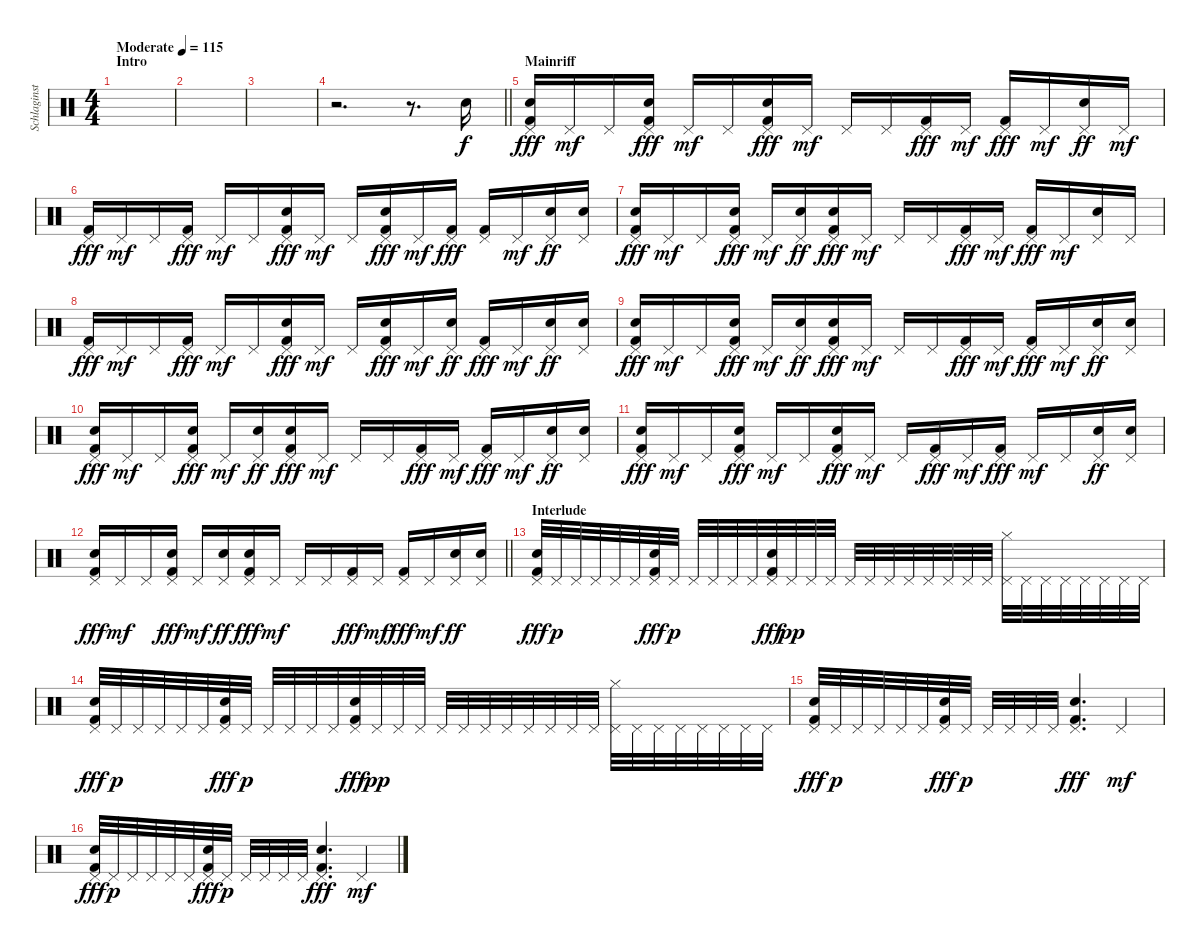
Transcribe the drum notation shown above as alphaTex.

\track ("Schlaginstrumente - Auswahl" "Schlaginst") {instrument percussion}
\staff {score}
\articulation defaults
\ts (4 4)
\section ("" "Intro")
\tempo (115 "Moderate")
\clef neutral
\ks c
|
|
|
\barLineRight lightlight
r.2{d} r.8{d} "Snare (hit) 2".16 |
\section ("" "Mainriff")
("Pedal Hi-Hat (hit)" "Snare (hit) 2" "Kick (hit) 2").16{dy fff} "Pedal Hi-Hat (hit)".16{dy mf} "Pedal Hi-Hat (hit)".16 ("Pedal Hi-Hat (hit)" "Snare (hit) 2" "Kick (hit) 2").16{dy fff} "Pedal Hi-Hat (hit)".16{dy mf} "Pedal Hi-Hat (hit)".16 ("Pedal Hi-Hat (hit)" "Snare (hit) 2" "Kick (hit) 2").16{dy fff} "Pedal Hi-Hat (hit)".16{dy mf} "Pedal Hi-Hat (hit)".16 "Pedal Hi-Hat (hit)".16 ("Pedal Hi-Hat (hit)" "Kick (hit) 2").16{dy fff} "Pedal Hi-Hat (hit)".16{dy mf} ("Pedal Hi-Hat (hit)" "Kick (hit) 2").16{dy fff} "Pedal Hi-Hat (hit)".16{dy mf} ("Pedal Hi-Hat (hit)" "Snare (hit) 2").16{dy ff} "Pedal Hi-Hat (hit)".16{dy mf} |
("Pedal Hi-Hat (hit)" "Kick (hit) 2").16{dy fff} "Pedal Hi-Hat (hit)".16{dy mf} "Pedal Hi-Hat (hit)".16 ("Pedal Hi-Hat (hit)" "Kick (hit) 2").16{dy fff} "Pedal Hi-Hat (hit)".16{dy mf} "Pedal Hi-Hat (hit)".16 ("Pedal Hi-Hat (hit)" "Snare (hit) 2" "Kick (hit) 2").16{dy fff} "Pedal Hi-Hat (hit)".16{dy mf} "Pedal Hi-Hat (hit)".16 ("Pedal Hi-Hat (hit)" "Snare (hit) 2" "Kick (hit) 2").16{dy fff} "Pedal Hi-Hat (hit)".16{dy mf} ("Pedal Hi-Hat (hit)" "Kick (hit) 2").16{dy fff} ("Pedal Hi-Hat (hit)" "Kick (hit) 2").16 "Pedal Hi-Hat (hit)".16{dy mf} ("Pedal Hi-Hat (hit)" "Snare (hit) 2").16{dy ff} ("Pedal Hi-Hat (hit)" "Snare (hit) 2").16 |
("Pedal Hi-Hat (hit)" "Snare (hit) 2" "Kick (hit) 2").16{dy fff} "Pedal Hi-Hat (hit)".16{dy mf} "Pedal Hi-Hat (hit)".16 ("Pedal Hi-Hat (hit)" "Snare (hit) 2" "Kick (hit) 2").16{dy fff} "Pedal Hi-Hat (hit)".16{dy mf} ("Pedal Hi-Hat (hit)" "Snare (hit) 2").16{dy ff} ("Pedal Hi-Hat (hit)" "Snare (hit) 2" "Kick (hit) 2").16{dy fff} "Pedal Hi-Hat (hit)".16{dy mf} "Pedal Hi-Hat (hit)".16 "Pedal Hi-Hat (hit)".16 ("Pedal Hi-Hat (hit)" "Kick (hit) 2").16{dy fff} "Pedal Hi-Hat (hit)".16{dy mf} ("Pedal Hi-Hat (hit)" "Kick (hit) 2").16{dy fff} "Pedal Hi-Hat (hit)".16{dy mf} ("Pedal Hi-Hat (hit)" "Snare (hit) 2").16 "Pedal Hi-Hat (hit)".16 |
("Pedal Hi-Hat (hit)" "Kick (hit) 2").16{dy fff} "Pedal Hi-Hat (hit)".16{dy mf} "Pedal Hi-Hat (hit)".16 ("Pedal Hi-Hat (hit)" "Kick (hit) 2").16{dy fff} "Pedal Hi-Hat (hit)".16{dy mf} "Pedal Hi-Hat (hit)".16 ("Pedal Hi-Hat (hit)" "Snare (hit) 2" "Kick (hit) 2").16{dy fff} "Pedal Hi-Hat (hit)".16{dy mf} "Pedal Hi-Hat (hit)".16 ("Pedal Hi-Hat (hit)" "Snare (hit) 2" "Kick (hit) 2").16{dy fff} "Pedal Hi-Hat (hit)".16{dy mf} ("Pedal Hi-Hat (hit)" "Snare (hit) 2").16{dy ff} ("Pedal Hi-Hat (hit)" "Kick (hit) 2").16{dy fff} "Pedal Hi-Hat (hit)".16{dy mf} ("Pedal Hi-Hat (hit)" "Snare (hit) 2").16{dy ff} ("Pedal Hi-Hat (hit)" "Snare (hit) 2").16 |
("Pedal Hi-Hat (hit)" "Snare (hit) 2" "Kick (hit) 2").16{dy fff} "Pedal Hi-Hat (hit)".16{dy mf} "Pedal Hi-Hat (hit)".16 ("Pedal Hi-Hat (hit)" "Snare (hit) 2" "Kick (hit) 2").16{dy fff} "Pedal Hi-Hat (hit)".16{dy mf} ("Pedal Hi-Hat (hit)" "Snare (hit) 2").16{dy ff} ("Pedal Hi-Hat (hit)" "Snare (hit) 2" "Kick (hit) 2").16{dy fff} "Pedal Hi-Hat (hit)".16{dy mf} "Pedal Hi-Hat (hit)".16 "Pedal Hi-Hat (hit)".16 ("Pedal Hi-Hat (hit)" "Kick (hit) 2").16{dy fff} "Pedal Hi-Hat (hit)".16{dy mf} ("Pedal Hi-Hat (hit)" "Kick (hit) 2").16{dy fff} "Pedal Hi-Hat (hit)".16{dy mf} ("Pedal Hi-Hat (hit)" "Snare (hit) 2").16{dy ff} ("Pedal Hi-Hat (hit)" "Snare (hit) 2").16 |
("Pedal Hi-Hat (hit)" "Snare (hit) 2" "Kick (hit) 2").16{dy fff} "Pedal Hi-Hat (hit)".16{dy mf} "Pedal Hi-Hat (hit)".16 ("Pedal Hi-Hat (hit)" "Snare (hit) 2" "Kick (hit) 2").16{dy fff} "Pedal Hi-Hat (hit)".16{dy mf} ("Pedal Hi-Hat (hit)" "Snare (hit) 2").16{dy ff} ("Pedal Hi-Hat (hit)" "Snare (hit) 2" "Kick (hit) 2").16{dy fff} "Pedal Hi-Hat (hit)".16{dy mf} "Pedal Hi-Hat (hit)".16 "Pedal Hi-Hat (hit)".16 ("Pedal Hi-Hat (hit)" "Kick (hit) 2").16{dy fff} "Pedal Hi-Hat (hit)".16{dy mf} ("Pedal Hi-Hat (hit)" "Kick (hit) 2").16{dy fff} "Pedal Hi-Hat (hit)".16{dy mf} ("Pedal Hi-Hat (hit)" "Snare (hit) 2").16{dy ff} ("Pedal Hi-Hat (hit)" "Snare (hit) 2").16 |
("Pedal Hi-Hat (hit)" "Snare (hit) 2" "Kick (hit) 2").16{dy fff} "Pedal Hi-Hat (hit)".16{dy mf} "Pedal Hi-Hat (hit)".16 ("Pedal Hi-Hat (hit)" "Snare (hit) 2" "Kick (hit) 2").16{dy fff} "Pedal Hi-Hat (hit)".16{dy mf} "Pedal Hi-Hat (hit)".16 ("Pedal Hi-Hat (hit)" "Snare (hit) 2" "Kick (hit) 2").16{dy fff} "Pedal Hi-Hat (hit)".16{dy mf} "Pedal Hi-Hat (hit)".16 ("Pedal Hi-Hat (hit)" "Kick (hit) 2").16{dy fff} "Pedal Hi-Hat (hit)".16{dy mf} ("Pedal Hi-Hat (hit)" "Kick (hit) 2").16{dy fff} "Pedal Hi-Hat (hit)".16{dy mf} "Pedal Hi-Hat (hit)".16 ("Pedal Hi-Hat (hit)" "Snare (hit) 2").16{dy ff} ("Pedal Hi-Hat (hit)" "Snare (hit) 2").16 |
\barLineRight lightlight
("Pedal Hi-Hat (hit)" "Snare (hit) 2" "Kick (hit) 2").16{dy fff} "Pedal Hi-Hat (hit)".16{dy mf} "Pedal Hi-Hat (hit)".16 ("Pedal Hi-Hat (hit)" "Snare (hit) 2" "Kick (hit) 2").16{dy fff} "Pedal Hi-Hat (hit)".16{dy mf} ("Pedal Hi-Hat (hit)" "Snare (hit) 2").16{dy ff} ("Pedal Hi-Hat (hit)" "Snare (hit) 2" "Kick (hit) 2").16{dy fff} "Pedal Hi-Hat (hit)".16{dy mf} "Pedal Hi-Hat (hit)".16 "Pedal Hi-Hat (hit)".16 ("Pedal Hi-Hat (hit)" "Kick (hit) 2").16{dy fff} "Pedal Hi-Hat (hit)".16{dy mf} ("Pedal Hi-Hat (hit)" "Kick (hit) 2").16{dy fff} "Pedal Hi-Hat (hit)".16{dy mf} ("Pedal Hi-Hat (hit)" "Snare (hit) 2").16{dy ff} ("Pedal Hi-Hat (hit)" "Snare (hit) 2").16 |
\section ("" "Interlude")
("Pedal Hi-Hat (hit)" "Snare (hit) 2" "Kick (hit) 2").32{dy fff} "Pedal Hi-Hat (hit)".32{dy p} "Pedal Hi-Hat (hit)".32 "Pedal Hi-Hat (hit)".32 "Pedal Hi-Hat (hit)".32 "Pedal Hi-Hat (hit)".32 ("Pedal Hi-Hat (hit)" "Snare (hit) 2" "Kick (hit) 2").32{dy fff} "Pedal Hi-Hat (hit)".32{dy p} "Pedal Hi-Hat (hit)".32 "Pedal Hi-Hat (hit)".32 "Pedal Hi-Hat (hit)".32 "Pedal Hi-Hat (hit)".32 ("Pedal Hi-Hat (hit)" "Snare (hit) 2" "Kick (hit) 2").32{dy fff} "Pedal Hi-Hat (hit)".32{dy pp} "Pedal Hi-Hat (hit)".32 "Pedal Hi-Hat (hit)".32 "Pedal Hi-Hat (hit)".32 "Pedal Hi-Hat (hit)".32 "Pedal Hi-Hat (hit)".32 "Pedal Hi-Hat (hit)".32 "Pedal Hi-Hat (hit)".32 "Pedal Hi-Hat (hit)".32 "Pedal Hi-Hat (hit)".32 "Pedal Hi-Hat (hit)".32 ("Hi-Hat (closed)" "Pedal Hi-Hat (hit)").32 "Pedal Hi-Hat (hit)".32 "Pedal Hi-Hat (hit)".32 "Pedal Hi-Hat (hit)".32 "Pedal Hi-Hat (hit)".32 "Pedal Hi-Hat (hit)".32 "Pedal Hi-Hat (hit)".32 "Pedal Hi-Hat (hit)".32 |
("Pedal Hi-Hat (hit)" "Snare (hit) 2" "Kick (hit) 2").32{dy fff} "Pedal Hi-Hat (hit)".32{dy p} "Pedal Hi-Hat (hit)".32 "Pedal Hi-Hat (hit)".32 "Pedal Hi-Hat (hit)".32 "Pedal Hi-Hat (hit)".32 ("Pedal Hi-Hat (hit)" "Snare (hit) 2" "Kick (hit) 2").32{dy fff} "Pedal Hi-Hat (hit)".32{dy p} "Pedal Hi-Hat (hit)".32 "Pedal Hi-Hat (hit)".32 "Pedal Hi-Hat (hit)".32 "Pedal Hi-Hat (hit)".32 ("Pedal Hi-Hat (hit)" "Snare (hit) 2" "Kick (hit) 2").32{dy fff} "Pedal Hi-Hat (hit)".32{dy pp} "Pedal Hi-Hat (hit)".32 "Pedal Hi-Hat (hit)".32 "Pedal Hi-Hat (hit)".32 "Pedal Hi-Hat (hit)".32 "Pedal Hi-Hat (hit)".32 "Pedal Hi-Hat (hit)".32 "Pedal Hi-Hat (hit)".32 "Pedal Hi-Hat (hit)".32 "Pedal Hi-Hat (hit)".32 "Pedal Hi-Hat (hit)".32 ("Hi-Hat (closed)" "Pedal Hi-Hat (hit)").32 "Pedal Hi-Hat (hit)".32 "Pedal Hi-Hat (hit)".32 "Pedal Hi-Hat (hit)".32 "Pedal Hi-Hat (hit)".32 "Pedal Hi-Hat (hit)".32 "Pedal Hi-Hat (hit)".32 "Pedal Hi-Hat (hit)".32 |
("Pedal Hi-Hat (hit)" "Snare (hit) 2" "Kick (hit) 2").32{dy fff} "Pedal Hi-Hat (hit)".32{dy p} "Pedal Hi-Hat (hit)".32 "Pedal Hi-Hat (hit)".32 "Pedal Hi-Hat (hit)".32 "Pedal Hi-Hat (hit)".32 ("Pedal Hi-Hat (hit)" "Snare (hit) 2" "Kick (hit) 2").32{dy fff} "Pedal Hi-Hat (hit)".32{dy p} "Pedal Hi-Hat (hit)".32 "Pedal Hi-Hat (hit)".32 "Pedal Hi-Hat (hit)".32 "Pedal Hi-Hat (hit)".32 ("Pedal Hi-Hat (hit)" "Snare (hit) 2" "Kick (hit) 2").4{d dy fff} "Pedal Hi-Hat (hit)".4{dy mf} |
("Pedal Hi-Hat (hit)" "Snare (hit) 2" "Kick (hit) 2").32{dy fff} "Pedal Hi-Hat (hit)".32{dy p} "Pedal Hi-Hat (hit)".32 "Pedal Hi-Hat (hit)".32 "Pedal Hi-Hat (hit)".32 "Pedal Hi-Hat (hit)".32 ("Pedal Hi-Hat (hit)" "Snare (hit) 2" "Kick (hit) 2").32{dy fff} "Pedal Hi-Hat (hit)".32{dy p} "Pedal Hi-Hat (hit)".32 "Pedal Hi-Hat (hit)".32 "Pedal Hi-Hat (hit)".32 "Pedal Hi-Hat (hit)".32 ("Pedal Hi-Hat (hit)" "Snare (hit) 2" "Kick (hit) 2").4{d dy fff} "Pedal Hi-Hat (hit)".4{dy mf}
